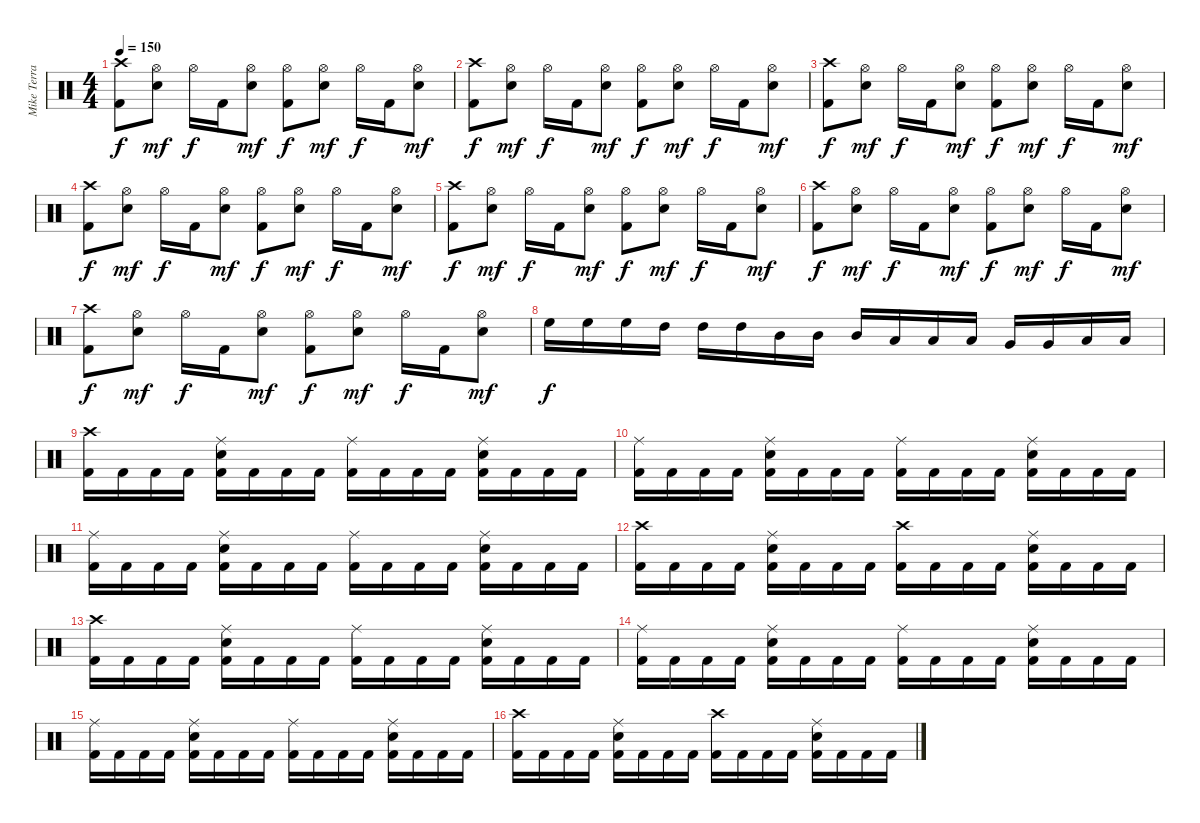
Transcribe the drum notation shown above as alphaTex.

\track ("Mike Terrana" "Mike Terra") {instrument percussion}
\staff {score}
\articulation defaults
\ts (4 4)
\tempo 150
\clef neutral
\ks c
("Crash high (hit)" "Kick (hit) 2").8{dy f} ("Hi-Hat (open)" "Electric Snare (hit)").8{dy mf} "Hi-Hat (open)".16{dy f} "Kick (hit) 2".16 ("Hi-Hat (open)" "Electric Snare (hit)").8{dy mf} ("Hi-Hat (open)" "Kick (hit) 2").8{dy f} ("Hi-Hat (open)" "Electric Snare (hit)").8{dy mf} "Hi-Hat (open)".16{dy f} "Kick (hit) 2".16 ("Hi-Hat (open)" "Electric Snare (hit)").8{dy mf} |
("Crash high (hit)" "Kick (hit) 2").8{dy f} ("Hi-Hat (open)" "Electric Snare (hit)").8{dy mf} "Hi-Hat (open)".16{dy f} "Kick (hit) 2".16 ("Hi-Hat (open)" "Electric Snare (hit)").8{dy mf} ("Hi-Hat (open)" "Kick (hit) 2").8{dy f} ("Hi-Hat (open)" "Electric Snare (hit)").8{dy mf} "Hi-Hat (open)".16{dy f} "Kick (hit) 2".16 ("Hi-Hat (open)" "Electric Snare (hit)").8{dy mf} |
("Crash high (hit)" "Kick (hit) 2").8{dy f} ("Hi-Hat (open)" "Electric Snare (hit)").8{dy mf} "Hi-Hat (open)".16{dy f} "Kick (hit) 2".16 ("Hi-Hat (open)" "Electric Snare (hit)").8{dy mf} ("Hi-Hat (open)" "Kick (hit) 2").8{dy f} ("Hi-Hat (open)" "Electric Snare (hit)").8{dy mf} "Hi-Hat (open)".16{dy f} "Kick (hit) 2".16 ("Hi-Hat (open)" "Electric Snare (hit)").8{dy mf} |
("Crash high (hit)" "Kick (hit) 2").8{dy f} ("Hi-Hat (open)" "Electric Snare (hit)").8{dy mf} "Hi-Hat (open)".16{dy f} "Kick (hit) 2".16 ("Hi-Hat (open)" "Electric Snare (hit)").8{dy mf} ("Hi-Hat (open)" "Kick (hit) 2").8{dy f} ("Hi-Hat (open)" "Electric Snare (hit)").8{dy mf} "Hi-Hat (open)".16{dy f} "Kick (hit) 2".16 ("Hi-Hat (open)" "Electric Snare (hit)").8{dy mf} |
("Crash high (hit)" "Kick (hit) 2").8{dy f} ("Hi-Hat (open)" "Electric Snare (hit)").8{dy mf} "Hi-Hat (open)".16{dy f} "Kick (hit) 2".16 ("Hi-Hat (open)" "Electric Snare (hit)").8{dy mf} ("Hi-Hat (open)" "Kick (hit) 2").8{dy f} ("Hi-Hat (open)" "Electric Snare (hit)").8{dy mf} "Hi-Hat (open)".16{dy f} "Kick (hit) 2".16 ("Hi-Hat (open)" "Electric Snare (hit)").8{dy mf} |
("Crash high (hit)" "Kick (hit) 2").8{dy f} ("Hi-Hat (open)" "Electric Snare (hit)").8{dy mf} "Hi-Hat (open)".16{dy f} "Kick (hit) 2".16 ("Hi-Hat (open)" "Electric Snare (hit)").8{dy mf} ("Hi-Hat (open)" "Kick (hit) 2").8{dy f} ("Hi-Hat (open)" "Electric Snare (hit)").8{dy mf} "Hi-Hat (open)".16{dy f} "Kick (hit) 2".16 ("Hi-Hat (open)" "Electric Snare (hit)").8{dy mf} |
("Crash high (hit)" "Kick (hit) 2").8{dy f} ("Hi-Hat (open)" "Electric Snare (hit)").8{dy mf} "Hi-Hat (open)".16{dy f} "Kick (hit) 2".16 ("Hi-Hat (open)" "Electric Snare (hit)").8{dy mf} ("Hi-Hat (open)" "Kick (hit) 2").8{dy f} ("Hi-Hat (open)" "Electric Snare (hit)").8{dy mf} "Hi-Hat (open)".16{dy f} "Kick (hit) 2".16 ("Hi-Hat (open)" "Electric Snare (hit)").8{dy mf} |
"High Floor Tom (hit)".16{dy f} "High Floor Tom (hit)".16 "High Floor Tom (hit)".16 "High Tom (hit)".16 "High Tom (hit)".16 "High Tom (hit)".16 "Mid Tom (hit)".16 "Mid Tom (hit)".16 "Mid Tom (hit)".16 "Low Tom (hit)".16 "Low Tom (hit)".16 "Low Tom (hit)".16 "Very Low Tom (hit)".16 "Very Low Tom (hit)".16 "Low Floor Tom (hit)".16 "Low Floor Tom (hit)".16 |
("Crash high (hit)" "Kick (hit) 2").16 "Kick (hit) 2".16 "Kick (hit) 2".16 "Kick (hit) 2".16 ("Ride (middle)" "Electric Snare (hit)" "Kick (hit) 2").16 "Kick (hit) 2".16 "Kick (hit) 2".16 "Kick (hit) 2".16 ("Ride (middle)" "Kick (hit) 2").16 "Kick (hit) 2".16 "Kick (hit) 2".16 "Kick (hit) 2".16 ("Ride (middle)" "Electric Snare (hit)" "Kick (hit) 2").16 "Kick (hit) 2".16 "Kick (hit) 2".16 "Kick (hit) 2".16 |
("Ride (middle)" "Kick (hit) 2").16 "Kick (hit) 2".16 "Kick (hit) 2".16 "Kick (hit) 2".16 ("Ride (middle)" "Electric Snare (hit)" "Kick (hit) 2").16 "Kick (hit) 2".16 "Kick (hit) 2".16 "Kick (hit) 2".16 ("Ride (middle)" "Kick (hit) 2").16 "Kick (hit) 2".16 "Kick (hit) 2".16 "Kick (hit) 2".16 ("Ride (middle)" "Electric Snare (hit)" "Kick (hit) 2").16 "Kick (hit) 2".16 "Kick (hit) 2".16 "Kick (hit) 2".16 |
("Ride (middle)" "Kick (hit) 2").16 "Kick (hit) 2".16 "Kick (hit) 2".16 "Kick (hit) 2".16 ("Ride (middle)" "Electric Snare (hit)" "Kick (hit) 2").16 "Kick (hit) 2".16 "Kick (hit) 2".16 "Kick (hit) 2".16 ("Ride (middle)" "Kick (hit) 2").16 "Kick (hit) 2".16 "Kick (hit) 2".16 "Kick (hit) 2".16 ("Ride (middle)" "Electric Snare (hit)" "Kick (hit) 2").16 "Kick (hit) 2".16 "Kick (hit) 2".16 "Kick (hit) 2".16 |
("Crash high (hit)" "Kick (hit) 2").16 "Kick (hit) 2".16 "Kick (hit) 2".16 "Kick (hit) 2".16 ("Ride (middle)" "Electric Snare (hit)" "Kick (hit) 2").16 "Kick (hit) 2".16 "Kick (hit) 2".16 "Kick (hit) 2".16 ("Crash high (hit)" "Kick (hit) 2").16 "Kick (hit) 2".16 "Kick (hit) 2".16 "Kick (hit) 2".16 ("Ride (middle)" "Electric Snare (hit)" "Kick (hit) 2").16 "Kick (hit) 2".16 "Kick (hit) 2".16 "Kick (hit) 2".16 |
("Crash high (hit)" "Kick (hit) 2").16 "Kick (hit) 2".16 "Kick (hit) 2".16 "Kick (hit) 2".16 ("Ride (middle)" "Electric Snare (hit)" "Kick (hit) 2").16 "Kick (hit) 2".16 "Kick (hit) 2".16 "Kick (hit) 2".16 ("Ride (middle)" "Kick (hit) 2").16 "Kick (hit) 2".16 "Kick (hit) 2".16 "Kick (hit) 2".16 ("Ride (middle)" "Electric Snare (hit)" "Kick (hit) 2").16 "Kick (hit) 2".16 "Kick (hit) 2".16 "Kick (hit) 2".16 |
("Ride (middle)" "Kick (hit) 2").16 "Kick (hit) 2".16 "Kick (hit) 2".16 "Kick (hit) 2".16 ("Ride (middle)" "Electric Snare (hit)" "Kick (hit) 2").16 "Kick (hit) 2".16 "Kick (hit) 2".16 "Kick (hit) 2".16 ("Ride (middle)" "Kick (hit) 2").16 "Kick (hit) 2".16 "Kick (hit) 2".16 "Kick (hit) 2".16 ("Ride (middle)" "Electric Snare (hit)" "Kick (hit) 2").16 "Kick (hit) 2".16 "Kick (hit) 2".16 "Kick (hit) 2".16 |
("Ride (middle)" "Kick (hit) 2").16 "Kick (hit) 2".16 "Kick (hit) 2".16 "Kick (hit) 2".16 ("Ride (middle)" "Electric Snare (hit)" "Kick (hit) 2").16 "Kick (hit) 2".16 "Kick (hit) 2".16 "Kick (hit) 2".16 ("Ride (middle)" "Kick (hit) 2").16 "Kick (hit) 2".16 "Kick (hit) 2".16 "Kick (hit) 2".16 ("Ride (middle)" "Electric Snare (hit)" "Kick (hit) 2").16 "Kick (hit) 2".16 "Kick (hit) 2".16 "Kick (hit) 2".16 |
("Crash high (hit)" "Kick (hit) 2").16 "Kick (hit) 2".16 "Kick (hit) 2".16 "Kick (hit) 2".16 ("Ride (middle)" "Electric Snare (hit)" "Kick (hit) 2").16 "Kick (hit) 2".16 "Kick (hit) 2".16 "Kick (hit) 2".16 ("Crash high (hit)" "Kick (hit) 2").16 "Kick (hit) 2".16 "Kick (hit) 2".16 "Kick (hit) 2".16 ("Ride (middle)" "Electric Snare (hit)" "Kick (hit) 2").16 "Kick (hit) 2".16 "Kick (hit) 2".16 "Kick (hit) 2".16
